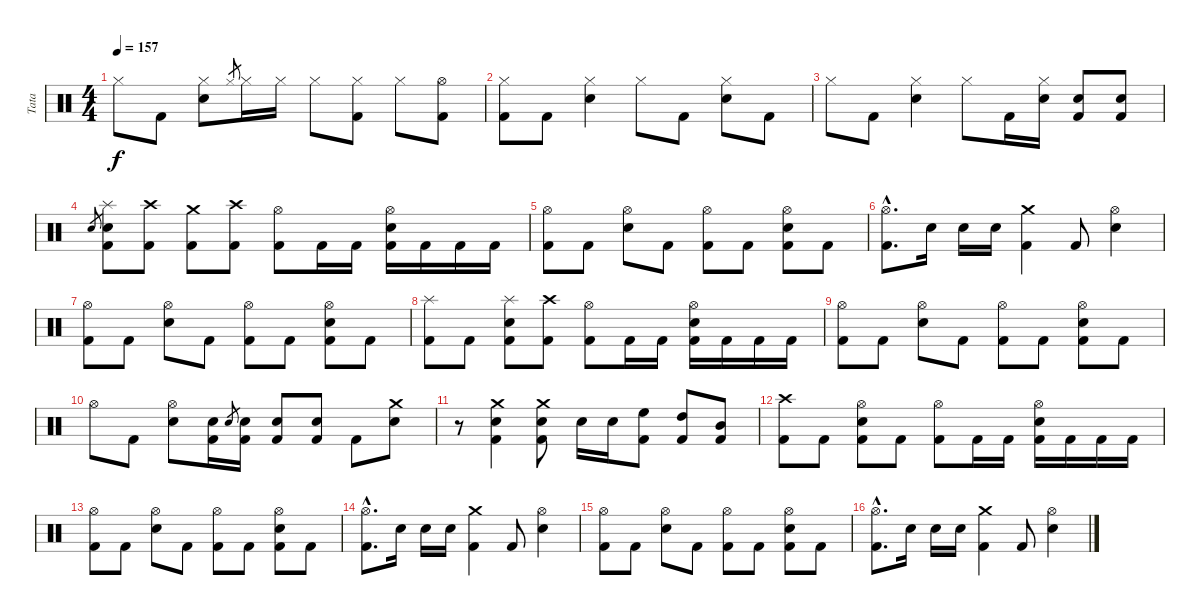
\track ("Tata" "Tata") {instrument percussion}
\staff {score}
\articulation defaults
\ts (4 4)
\tempo 157
\clef neutral
\ks c "Hi-Hat (closed)".8{dy f} "Kick (hit) 2".8
("Electric Snare (hit)" "Hi-Hat (closed)").8 "Hi-Hat (closed)".8{gr} "Hi-Hat (closed)".16 "Hi-Hat (closed)".16 "Hi-Hat (closed)".8 ("Kick (hit) 2" "Hi-Hat (closed)").8 "Hi-Hat (closed)".8 ("Kick (hit) 2" "Hi-Hat (open)").8 |
("Kick (hit) 2" "Hi-Hat (closed)").8 "Kick (hit) 2".8 ("Electric Snare (hit)" "Hi-Hat (closed)").4 "Hi-Hat (closed)".8 "Kick (hit) 2".8 ("Electric Snare (hit)" "Hi-Hat (closed)").8 "Kick (hit) 2".8 |
"Hi-Hat (closed)".8 "Kick (hit) 2".8 ("Electric Snare (hit)" "Hi-Hat (closed)").4 "Hi-Hat (closed)".8 "Kick (hit) 2".16 ("Electric Snare (hit)" "Hi-Hat (closed)").16 ("Kick (hit) 2" "Electric Snare (hit)").8 ("Kick (hit) 2" "Electric Snare (hit)").8 |
"Electric Snare (hit)".8{gr} ("Kick (hit) 2" "Electric Snare (hit)" "Splash (hit)").8 ("Kick (hit) 2" "Crash high (hit)").8 ("Kick (hit) 2" "Crash medium (hit)").8 ("Kick (hit) 2" "Crash high (hit)").8 ("Kick (hit) 2" "Hi-Hat (open)").8 "Kick (hit) 2".16 "Kick (hit) 2".16 ("Kick (hit) 2" "Electric Snare (hit)" "Hi-Hat (open)").16 "Kick (hit) 2".16 "Kick (hit) 2".16 "Kick (hit) 2".16 |
("Kick (hit) 2" "Hi-Hat (open)").8 "Kick (hit) 2".8 ("Electric Snare (hit)" "Hi-Hat (open)").8 "Kick (hit) 2".8 ("Kick (hit) 2" "Hi-Hat (open)").8 "Kick (hit) 2".8 ("Kick (hit) 2" "Electric Snare (hit)" "Hi-Hat (open)").8 "Kick (hit) 2".8 |
("Kick (hit) 2"{hac} "Hi-Hat (open)"{hac}).8{d} "Electric Snare (hit)".16 "Electric Snare (hit)".16 "Electric Snare (hit)".16 ("Kick (hit) 2" "Crash medium (hit)").4 "Kick (hit) 2".8 ("Electric Snare (hit)" "Hi-Hat (open)").4 |
("Kick (hit) 2" "Hi-Hat (open)").8 "Kick (hit) 2".8 ("Electric Snare (hit)" "Hi-Hat (open)").8 "Kick (hit) 2".8 ("Kick (hit) 2" "Hi-Hat (open)").8 "Kick (hit) 2".8 ("Kick (hit) 2" "Electric Snare (hit)" "Hi-Hat (open)").8 "Kick (hit) 2".8 |
("Kick (hit) 2" "Splash (hit)").8 "Kick (hit) 2".8 ("Kick (hit) 2" "Electric Snare (hit)" "Splash (hit)").8 ("Kick (hit) 2" "Crash high (hit)").8 ("Kick (hit) 2" "Hi-Hat (open)").8 "Kick (hit) 2".16 "Kick (hit) 2".16 ("Kick (hit) 2" "Electric Snare (hit)" "Hi-Hat (open)").16 "Kick (hit) 2".16 "Kick (hit) 2".16 "Kick (hit) 2".16 |
("Kick (hit) 2" "Hi-Hat (open)").8 "Kick (hit) 2".8 ("Electric Snare (hit)" "Hi-Hat (open)").8 "Kick (hit) 2".8 ("Kick (hit) 2" "Hi-Hat (open)").8 "Kick (hit) 2".8 ("Kick (hit) 2" "Electric Snare (hit)" "Hi-Hat (open)").8 "Kick (hit) 2".8 |
"Hi-Hat (open)".8 "Kick (hit) 2".8 ("Electric Snare (hit)" "Hi-Hat (open)").8 ("Kick (hit) 2" "Electric Snare (hit)").16 "Electric Snare (hit)".8{gr} ("Kick (hit) 2" "Electric Snare (hit)").16 ("Kick (hit) 2" "Electric Snare (hit)").8 ("Kick (hit) 2" "Electric Snare (hit)").8 "Kick (hit) 2".8 ("Electric Snare (hit)" "Crash medium (hit)").8 |
r.8 ("Kick (hit) 2" "Electric Snare (hit)" "Crash medium (hit)").4 ("Kick (hit) 2" "Electric Snare (hit)" "Crash medium (hit)").8 "Electric Snare (hit)".16 "Electric Snare (hit)".16 ("Kick (hit) 2" "High Floor Tom (hit)").8 ("Kick (hit) 2" "High Tom (hit)").8 ("Kick (hit) 2" "Mid Tom (hit)").8 |
("Kick (hit) 2" "Crash high (hit)").8 "Kick (hit) 2".8 ("Kick (hit) 2" "Electric Snare (hit)" "Hi-Hat (open)").8 "Kick (hit) 2".8 ("Kick (hit) 2" "Hi-Hat (open)").8 "Kick (hit) 2".16 "Kick (hit) 2".16 ("Kick (hit) 2" "Electric Snare (hit)" "Hi-Hat (open)").16 "Kick (hit) 2".16 "Kick (hit) 2".16 "Kick (hit) 2".16 |
("Kick (hit) 2" "Hi-Hat (open)").8 "Kick (hit) 2".8 ("Electric Snare (hit)" "Hi-Hat (open)").8 "Kick (hit) 2".8 ("Kick (hit) 2" "Hi-Hat (open)").8 "Kick (hit) 2".8 ("Kick (hit) 2" "Electric Snare (hit)" "Hi-Hat (open)").8 "Kick (hit) 2".8 |
("Kick (hit) 2"{hac} "Hi-Hat (open)"{hac}).8{d} "Electric Snare (hit)".16 "Electric Snare (hit)".16 "Electric Snare (hit)".16 ("Kick (hit) 2" "Crash medium (hit)").4 "Kick (hit) 2".8 ("Electric Snare (hit)" "Hi-Hat (open)").4 |
("Kick (hit) 2" "Hi-Hat (open)").8 "Kick (hit) 2".8 ("Electric Snare (hit)" "Hi-Hat (open)").8 "Kick (hit) 2".8 ("Kick (hit) 2" "Hi-Hat (open)").8 "Kick (hit) 2".8 ("Kick (hit) 2" "Electric Snare (hit)" "Hi-Hat (open)").8 "Kick (hit) 2".8 |
("Kick (hit) 2"{hac} "Hi-Hat (open)"{hac}).8{d} "Electric Snare (hit)".16 "Electric Snare (hit)".16 "Electric Snare (hit)".16 ("Kick (hit) 2" "Crash medium (hit)").4 "Kick (hit) 2".8 ("Electric Snare (hit)" "Hi-Hat (open)").4
